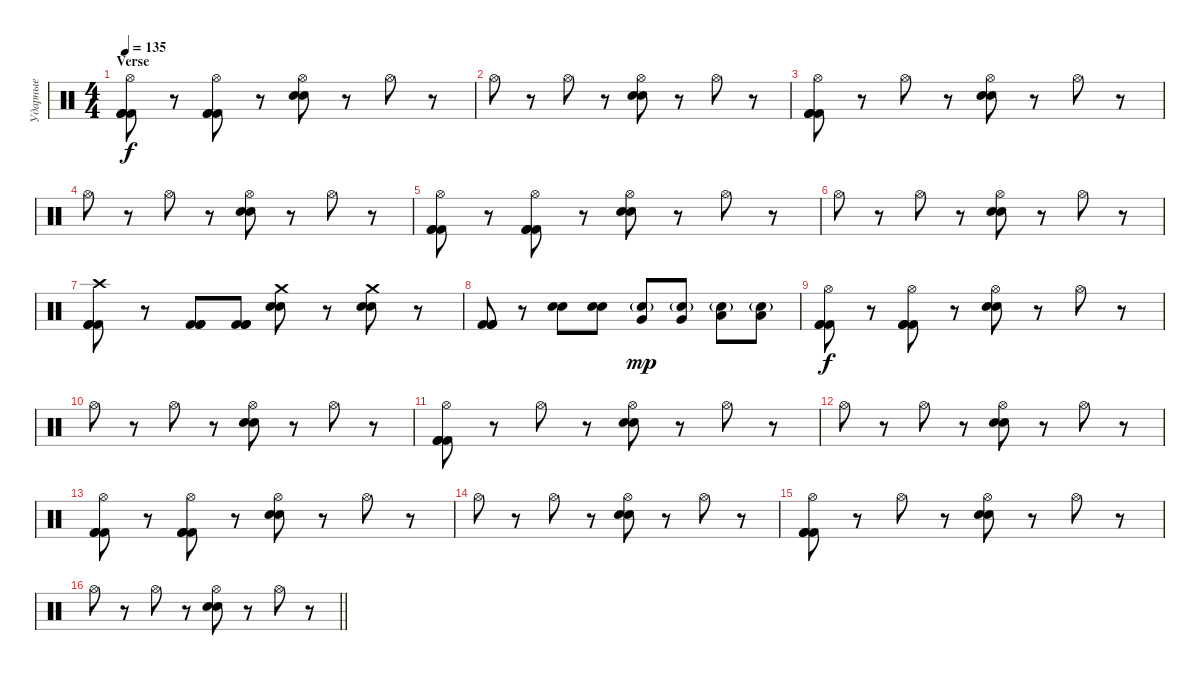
\track ("Ударные" "Ударные") {instrument percussion}
\staff {score}
\articulation defaults
\ts (4 4)
\section ("" "Verse")
\tempo 135
\clef neutral
\ks c
("Hi-Hat (open)" "Kick (hit) 2" "Kick (hit) 2" "Kick (hit) 2").8{dy f} r.8 ("Hi-Hat (open)" "Kick (hit) 2" "Kick (hit) 2" "Kick (hit) 2").8 r.8 ("Hi-Hat (open)" "Electric Snare (hit)" "Electric Snare (hit)").8 r.8 "Hi-Hat (open)".8 r.8 |
"Hi-Hat (open)".8 r.8 "Hi-Hat (open)".8 r.8 ("Hi-Hat (open)" "Electric Snare (hit)" "Electric Snare (hit)").8 r.8 "Hi-Hat (open)".8 r.8 |
("Hi-Hat (open)" "Kick (hit) 2" "Kick (hit) 2" "Kick (hit) 2").8 r.8 "Hi-Hat (open)".8 r.8 ("Hi-Hat (open)" "Electric Snare (hit)" "Electric Snare (hit)").8 r.8 "Hi-Hat (open)".8 r.8 |
"Hi-Hat (open)".8 r.8 "Hi-Hat (open)".8 r.8 ("Hi-Hat (open)" "Electric Snare (hit)" "Electric Snare (hit)").8 r.8 "Hi-Hat (open)".8 r.8 |
("Hi-Hat (open)" "Kick (hit) 2" "Kick (hit) 2" "Kick (hit) 2").8 r.8 ("Hi-Hat (open)" "Kick (hit) 2" "Kick (hit) 2" "Kick (hit) 2").8 r.8 ("Hi-Hat (open)" "Electric Snare (hit)" "Electric Snare (hit)").8 r.8 "Hi-Hat (open)".8 r.8 |
"Hi-Hat (open)".8 r.8 "Hi-Hat (open)".8 r.8 ("Hi-Hat (open)" "Electric Snare (hit)" "Electric Snare (hit)").8 r.8 "Hi-Hat (open)".8 r.8 |
("Crash high (hit)" "Kick (hit) 2" "Kick (hit) 2" "Kick (hit) 2").8 r.8 ("Kick (hit) 2" "Kick (hit) 2" "Kick (hit) 2").8 ("Kick (hit) 2" "Kick (hit) 2" "Kick (hit) 2").8 ("Crash medium (hit)" "Electric Snare (hit)" "Electric Snare (hit)").8 r.8 ("Crash medium (hit)" "Electric Snare (hit)" "Electric Snare (hit)").8 r.8 |
("Kick (hit) 2" "Kick (hit) 2" "Kick (hit) 2").8 r.8 ("Electric Snare (hit)" "Electric Snare (hit)").8 ("Electric Snare (hit)" "Electric Snare (hit)").8 ("Very Low Tom (hit)" "Electric Snare (hit)"{g}).8{dy mp} ("Very Low Tom (hit)" "Electric Snare (hit)"{g}).8 ("Low Floor Tom (hit)" "Electric Snare (hit)"{g}).8 ("Low Floor Tom (hit)" "Electric Snare (hit)"{g}).8 |
("Hi-Hat (open)" "Kick (hit) 2" "Kick (hit) 2" "Kick (hit) 2").8{dy f} r.8 ("Hi-Hat (open)" "Kick (hit) 2" "Kick (hit) 2" "Kick (hit) 2").8 r.8 ("Hi-Hat (open)" "Electric Snare (hit)" "Electric Snare (hit)").8 r.8 "Hi-Hat (open)".8 r.8 |
"Hi-Hat (open)".8 r.8 "Hi-Hat (open)".8 r.8 ("Hi-Hat (open)" "Electric Snare (hit)" "Electric Snare (hit)").8 r.8 "Hi-Hat (open)".8 r.8 |
("Hi-Hat (open)" "Kick (hit) 2" "Kick (hit) 2" "Kick (hit) 2").8 r.8 "Hi-Hat (open)".8 r.8 ("Hi-Hat (open)" "Electric Snare (hit)" "Electric Snare (hit)").8 r.8 "Hi-Hat (open)".8 r.8 |
"Hi-Hat (open)".8 r.8 "Hi-Hat (open)".8 r.8 ("Hi-Hat (open)" "Electric Snare (hit)" "Electric Snare (hit)").8 r.8 "Hi-Hat (open)".8 r.8 |
("Hi-Hat (open)" "Kick (hit) 2" "Kick (hit) 2" "Kick (hit) 2").8 r.8 ("Hi-Hat (open)" "Kick (hit) 2" "Kick (hit) 2" "Kick (hit) 2").8 r.8 ("Hi-Hat (open)" "Electric Snare (hit)" "Electric Snare (hit)").8 r.8 "Hi-Hat (open)".8 r.8 |
"Hi-Hat (open)".8 r.8 "Hi-Hat (open)".8 r.8 ("Hi-Hat (open)" "Electric Snare (hit)" "Electric Snare (hit)").8 r.8 "Hi-Hat (open)".8 r.8 |
("Hi-Hat (open)" "Kick (hit) 2" "Kick (hit) 2" "Kick (hit) 2").8 r.8 "Hi-Hat (open)".8 r.8 ("Hi-Hat (open)" "Electric Snare (hit)" "Electric Snare (hit)").8 r.8 "Hi-Hat (open)".8 r.8 |
\barLineRight lightlight "Hi-Hat (open)".8
r.8 "Hi-Hat (open)".8 r.8 ("Hi-Hat (open)" "Electric Snare (hit)" "Electric Snare (hit)").8 r.8 "Hi-Hat (open)".8 r.8
